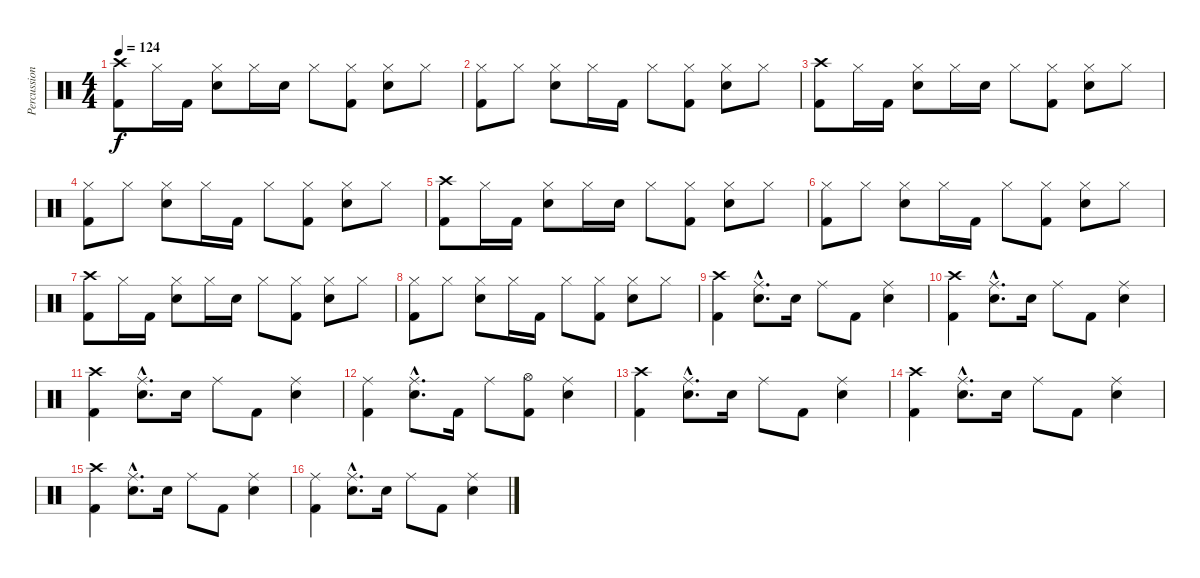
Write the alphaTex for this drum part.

\track ("Percussion" "Percussion") {instrument percussion}
\staff {score}
\articulation defaults
\ts (4 4)
\tempo 124
\clef neutral
\ks c
("Crash high (hit)" "Kick (hit) 2").8{dy f} "Hi-Hat (closed)".16 "Kick (hit) 2".16 ("Hi-Hat (closed)" "Electric Snare (hit)").8 "Hi-Hat (closed)".16 "Electric Snare (hit)".16 "Hi-Hat (closed)".8 ("Hi-Hat (closed)" "Kick (hit) 2").8 ("Hi-Hat (closed)" "Electric Snare (hit)").8 "Hi-Hat (closed)".8 |
("Hi-Hat (closed)" "Kick (hit) 2").8 "Hi-Hat (closed)".8 ("Hi-Hat (closed)" "Electric Snare (hit)").8 "Hi-Hat (closed)".16 "Kick (hit) 2".16 "Hi-Hat (closed)".8 ("Hi-Hat (closed)" "Kick (hit) 2").8 ("Hi-Hat (closed)" "Electric Snare (hit)").8 "Hi-Hat (closed)".8 |
("Crash high (hit)" "Kick (hit) 2").8 "Hi-Hat (closed)".16 "Kick (hit) 2".16 ("Hi-Hat (closed)" "Electric Snare (hit)").8 "Hi-Hat (closed)".16 "Electric Snare (hit)".16 "Hi-Hat (closed)".8 ("Hi-Hat (closed)" "Kick (hit) 2").8 ("Hi-Hat (closed)" "Electric Snare (hit)").8 "Hi-Hat (closed)".8 |
("Hi-Hat (closed)" "Kick (hit) 2").8 "Hi-Hat (closed)".8 ("Hi-Hat (closed)" "Electric Snare (hit)").8 "Hi-Hat (closed)".16 "Kick (hit) 2".16 "Hi-Hat (closed)".8 ("Hi-Hat (closed)" "Kick (hit) 2").8 ("Hi-Hat (closed)" "Electric Snare (hit)").8 "Hi-Hat (closed)".8 |
("Crash high (hit)" "Kick (hit) 2").8 "Hi-Hat (closed)".16 "Kick (hit) 2".16 ("Hi-Hat (closed)" "Electric Snare (hit)").8 "Hi-Hat (closed)".16 "Electric Snare (hit)".16 "Hi-Hat (closed)".8 ("Hi-Hat (closed)" "Kick (hit) 2").8 ("Hi-Hat (closed)" "Electric Snare (hit)").8 "Hi-Hat (closed)".8 |
("Hi-Hat (closed)" "Kick (hit) 2").8 "Hi-Hat (closed)".8 ("Hi-Hat (closed)" "Electric Snare (hit)").8 "Hi-Hat (closed)".16 "Kick (hit) 2".16 "Hi-Hat (closed)".8 ("Hi-Hat (closed)" "Kick (hit) 2").8 ("Hi-Hat (closed)" "Electric Snare (hit)").8 "Hi-Hat (closed)".8 |
("Crash high (hit)" "Kick (hit) 2").8 "Hi-Hat (closed)".16 "Kick (hit) 2".16 ("Hi-Hat (closed)" "Electric Snare (hit)").8 "Hi-Hat (closed)".16 "Electric Snare (hit)".16 "Hi-Hat (closed)".8 ("Hi-Hat (closed)" "Kick (hit) 2").8 ("Hi-Hat (closed)" "Electric Snare (hit)").8 "Hi-Hat (closed)".8 |
("Hi-Hat (closed)" "Kick (hit) 2").8 "Hi-Hat (closed)".8 ("Hi-Hat (closed)" "Electric Snare (hit)").8 "Hi-Hat (closed)".16 "Kick (hit) 2".16 "Hi-Hat (closed)".8 ("Hi-Hat (closed)" "Kick (hit) 2").8 ("Hi-Hat (closed)" "Electric Snare (hit)").8 "Hi-Hat (closed)".8 |
("Crash high (hit)" "Kick (hit) 2").4 ("Ride (middle)"{hac} "Electric Snare (hit)"{hac}).8{d} "Electric Snare (hit)".16 "Ride (middle)".8 "Kick (hit) 2".8 ("Ride (middle)" "Electric Snare (hit)").4 |
("Crash high (hit)" "Kick (hit) 2").4 ("Ride (middle)"{hac} "Electric Snare (hit)"{hac}).8{d} "Electric Snare (hit)".16 "Ride (middle)".8 "Kick (hit) 2".8 ("Ride (middle)" "Electric Snare (hit)").4 |
("Crash high (hit)" "Kick (hit) 2").4 ("Ride (middle)"{hac} "Electric Snare (hit)"{hac}).8{d} "Electric Snare (hit)".16 "Ride (middle)".8 "Kick (hit) 2".8 ("Ride (middle)" "Electric Snare (hit)").4 |
("Ride (middle)" "Kick (hit) 2").4 ("Ride (middle)"{hac} "Electric Snare (hit)"{hac}).8{d} "Kick (hit) 2".16 "Ride (middle)".8 ("Hi-Hat (open)" "Kick (hit) 2").8 ("Ride (middle)" "Electric Snare (hit)").4 |
("Crash high (hit)" "Kick (hit) 2").4 ("Ride (middle)"{hac} "Electric Snare (hit)"{hac}).8{d} "Electric Snare (hit)".16 "Ride (middle)".8 "Kick (hit) 2".8 ("Ride (middle)" "Electric Snare (hit)").4 |
("Crash high (hit)" "Kick (hit) 2").4 ("Ride (middle)"{hac} "Electric Snare (hit)"{hac}).8{d} "Electric Snare (hit)".16 "Ride (middle)".8 "Kick (hit) 2".8 ("Ride (middle)" "Electric Snare (hit)").4 |
("Crash high (hit)" "Kick (hit) 2").4 ("Ride (middle)"{hac} "Electric Snare (hit)"{hac}).8{d} "Electric Snare (hit)".16 "Ride (middle)".8 "Kick (hit) 2".8 ("Ride (middle)" "Electric Snare (hit)").4 |
("Ride (middle)" "Kick (hit) 2").4 ("Ride (middle)"{hac} "Electric Snare (hit)"{hac}).8{d} "Electric Snare (hit)".16 "Ride (middle)".8 "Kick (hit) 2".8 ("Ride (middle)" "Electric Snare (hit)").4
